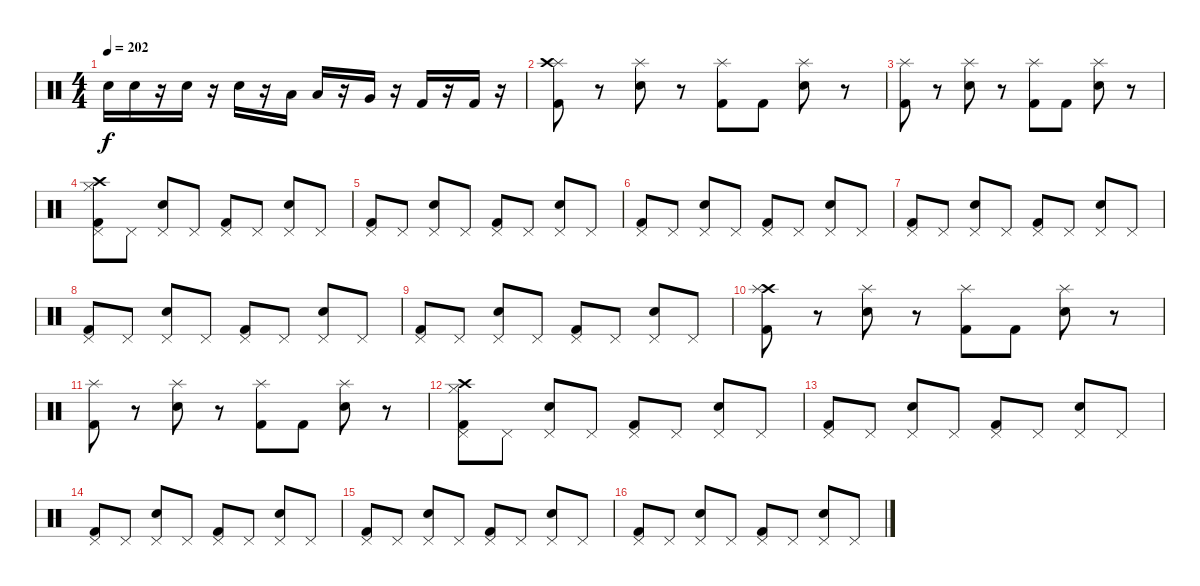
\track "" {instrument percussion}
\staff {score}
\articulation defaults
\ts (4 4)
\tempo 202
\clef neutral
\ks c "Electric Snare (hit)".16{dy f} "Electric Snare (hit)".16
r.16 "Electric Snare (hit)".16 r.16 "Electric Snare (hit)".16 r.16 "Low Tom (hit)".16 "Low Tom (hit)".16 r.16 "Very Low Tom (hit)".16 r.16 "Kick (hit) 2".16 r.16 "Kick (hit) 2".16 r.16 |
("Splash (hit)" "Crash high (hit)" "Kick (hit) 2").8 r.8 ("Splash (hit)" "Electric Snare (hit)").8 r.8 ("Splash (hit)" "Kick (hit) 2").8 "Kick (hit) 2".8 ("Splash (hit)" "Electric Snare (hit)").8 r.8 |
("Splash (hit)" "Kick (hit) 2").8 r.8 ("Splash (hit)" "Electric Snare (hit)").8 r.8 ("Splash (hit)" "Kick (hit) 2").8 "Kick (hit) 2".8 ("Splash (hit)" "Electric Snare (hit)").8 r.8 |
("Pedal Hi-Hat (hit)" "Crash high (hit)" "Hi-Hat (closed)" "Kick (hit) 2").8 "Pedal Hi-Hat (hit)".8 ("Pedal Hi-Hat (hit)" "Electric Snare (hit)").8 "Pedal Hi-Hat (hit)".8 ("Pedal Hi-Hat (hit)" "Kick (hit) 2").8 "Pedal Hi-Hat (hit)".8 ("Pedal Hi-Hat (hit)" "Electric Snare (hit)").8 "Pedal Hi-Hat (hit)".8 |
("Pedal Hi-Hat (hit)" "Kick (hit) 2").8 "Pedal Hi-Hat (hit)".8 ("Pedal Hi-Hat (hit)" "Electric Snare (hit)").8 "Pedal Hi-Hat (hit)".8 ("Pedal Hi-Hat (hit)" "Kick (hit) 2").8 "Pedal Hi-Hat (hit)".8 ("Pedal Hi-Hat (hit)" "Electric Snare (hit)").8 "Pedal Hi-Hat (hit)".8 |
("Pedal Hi-Hat (hit)" "Kick (hit) 2").8 "Pedal Hi-Hat (hit)".8 ("Pedal Hi-Hat (hit)" "Electric Snare (hit)").8 "Pedal Hi-Hat (hit)".8 ("Pedal Hi-Hat (hit)" "Kick (hit) 2").8 "Pedal Hi-Hat (hit)".8 ("Pedal Hi-Hat (hit)" "Electric Snare (hit)").8 "Pedal Hi-Hat (hit)".8 |
("Pedal Hi-Hat (hit)" "Kick (hit) 2").8 "Pedal Hi-Hat (hit)".8 ("Pedal Hi-Hat (hit)" "Electric Snare (hit)").8 "Pedal Hi-Hat (hit)".8 ("Pedal Hi-Hat (hit)" "Kick (hit) 2").8 "Pedal Hi-Hat (hit)".8 ("Pedal Hi-Hat (hit)" "Electric Snare (hit)").8 "Pedal Hi-Hat (hit)".8 |
("Pedal Hi-Hat (hit)" "Kick (hit) 2").8 "Pedal Hi-Hat (hit)".8 ("Pedal Hi-Hat (hit)" "Electric Snare (hit)").8 "Pedal Hi-Hat (hit)".8 ("Pedal Hi-Hat (hit)" "Kick (hit) 2").8 "Pedal Hi-Hat (hit)".8 ("Pedal Hi-Hat (hit)" "Electric Snare (hit)").8 "Pedal Hi-Hat (hit)".8 |
("Pedal Hi-Hat (hit)" "Kick (hit) 2").8 "Pedal Hi-Hat (hit)".8 ("Pedal Hi-Hat (hit)" "Electric Snare (hit)").8 "Pedal Hi-Hat (hit)".8 ("Pedal Hi-Hat (hit)" "Kick (hit) 2").8 "Pedal Hi-Hat (hit)".8 ("Pedal Hi-Hat (hit)" "Electric Snare (hit)").8 "Pedal Hi-Hat (hit)".8 |
("Crash high (hit)" "Splash (hit)" "Kick (hit) 2").8 r.8 ("Splash (hit)" "Electric Snare (hit)").8 r.8 ("Splash (hit)" "Kick (hit) 2").8 "Kick (hit) 2".8 ("Splash (hit)" "Electric Snare (hit)").8 r.8 |
("Splash (hit)" "Kick (hit) 2").8 r.8 ("Splash (hit)" "Electric Snare (hit)").8 r.8 ("Splash (hit)" "Kick (hit) 2").8 "Kick (hit) 2".8 ("Splash (hit)" "Electric Snare (hit)").8 r.8 |
("Pedal Hi-Hat (hit)" "Crash high (hit)" "Hi-Hat (closed)" "Kick (hit) 2").8 "Pedal Hi-Hat (hit)".8 ("Pedal Hi-Hat (hit)" "Electric Snare (hit)").8 "Pedal Hi-Hat (hit)".8 ("Pedal Hi-Hat (hit)" "Kick (hit) 2").8 "Pedal Hi-Hat (hit)".8 ("Pedal Hi-Hat (hit)" "Electric Snare (hit)").8 "Pedal Hi-Hat (hit)".8 |
("Pedal Hi-Hat (hit)" "Kick (hit) 2").8 "Pedal Hi-Hat (hit)".8 ("Pedal Hi-Hat (hit)" "Electric Snare (hit)").8 "Pedal Hi-Hat (hit)".8 ("Pedal Hi-Hat (hit)" "Kick (hit) 2").8 "Pedal Hi-Hat (hit)".8 ("Pedal Hi-Hat (hit)" "Electric Snare (hit)").8 "Pedal Hi-Hat (hit)".8 |
("Pedal Hi-Hat (hit)" "Kick (hit) 2").8 "Pedal Hi-Hat (hit)".8 ("Pedal Hi-Hat (hit)" "Electric Snare (hit)").8 "Pedal Hi-Hat (hit)".8 ("Pedal Hi-Hat (hit)" "Kick (hit) 2").8 "Pedal Hi-Hat (hit)".8 ("Pedal Hi-Hat (hit)" "Electric Snare (hit)").8 "Pedal Hi-Hat (hit)".8 |
("Pedal Hi-Hat (hit)" "Kick (hit) 2").8 "Pedal Hi-Hat (hit)".8 ("Pedal Hi-Hat (hit)" "Electric Snare (hit)").8 "Pedal Hi-Hat (hit)".8 ("Pedal Hi-Hat (hit)" "Kick (hit) 2").8 "Pedal Hi-Hat (hit)".8 ("Pedal Hi-Hat (hit)" "Electric Snare (hit)").8 "Pedal Hi-Hat (hit)".8 |
("Pedal Hi-Hat (hit)" "Kick (hit) 2").8 "Pedal Hi-Hat (hit)".8 ("Pedal Hi-Hat (hit)" "Electric Snare (hit)").8 "Pedal Hi-Hat (hit)".8 ("Pedal Hi-Hat (hit)" "Kick (hit) 2").8 "Pedal Hi-Hat (hit)".8 ("Pedal Hi-Hat (hit)" "Electric Snare (hit)").8 "Pedal Hi-Hat (hit)".8
